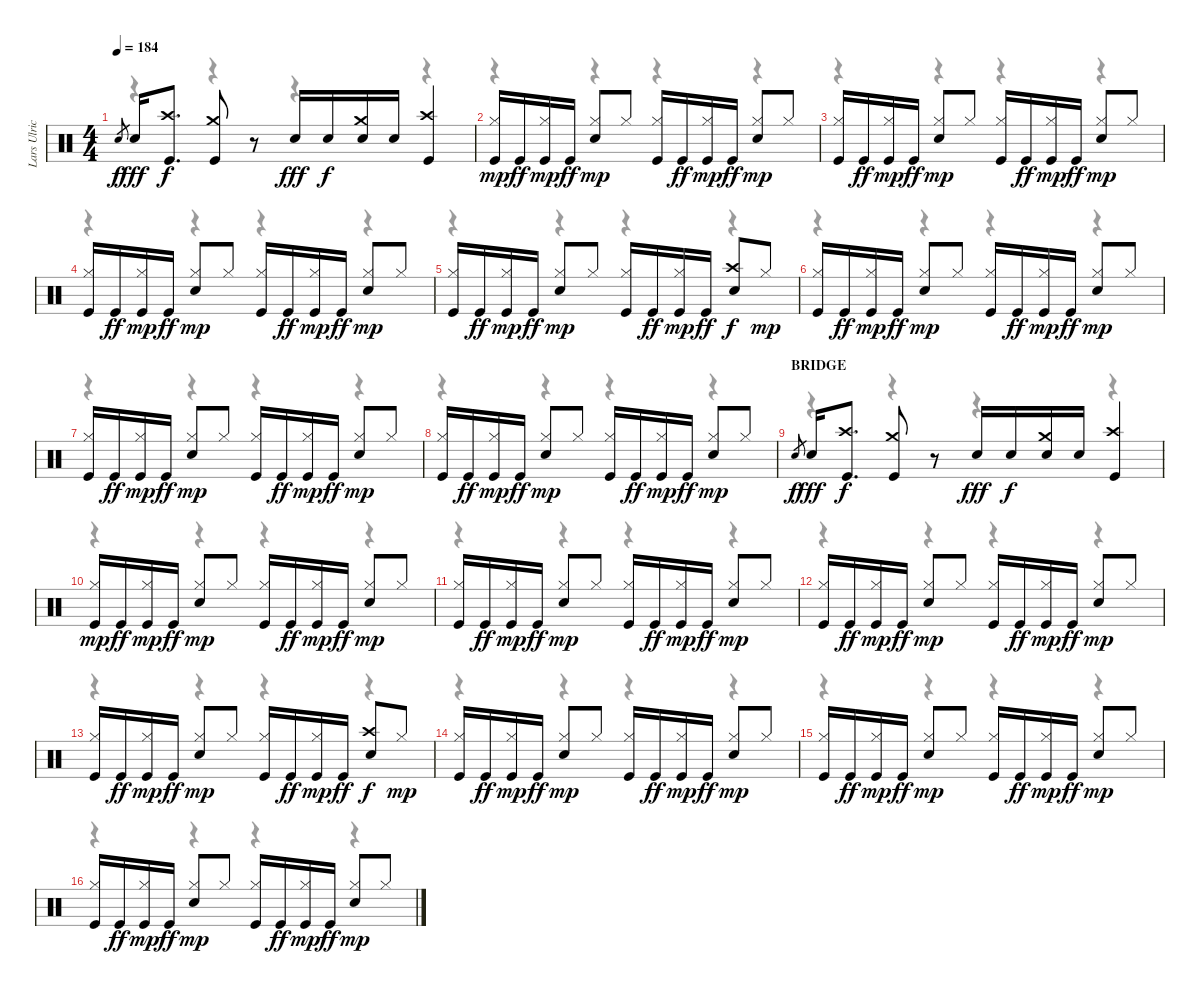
\track ("Lars Ulrich" "Lars Ulric") {instrument percussion}
\staff {score}
\articulation defaults
\voice
\ts (4 4)
\tempo 184
\clef neutral
\ks c "Snare (hit)".8{gr dy f} "Snare (hit) 2".16{dy fff}
("Crash high (hit)" "Kick (hit)").8{d dy f} ("Crash medium (hit)" "Kick (hit)").8 r.8 "Snare (hit) 2".16{dy fff} "Snare (hit) 2".16{dy f} ("Crash medium (hit)" "Snare (hit) 2").16 "Snare (hit) 2".16 ("Crash high (hit)" "Kick (hit)").4 |
("Hi-Hat (closed)" "Kick (hit)").16{dy mp} "Kick (hit)".16{dy ff} ("Hi-Hat (closed)" "Kick (hit)").16{dy mp} "Kick (hit)".16{dy ff} ("Hi-Hat (closed)" "Snare (hit) 2").8{dy mp} "Hi-Hat (closed)".8 ("Hi-Hat (closed)" "Kick (hit)").16 "Kick (hit)".16{dy ff} ("Hi-Hat (closed)" "Kick (hit)").16{dy mp} "Kick (hit)".16{dy ff} ("Hi-Hat (closed)" "Snare (hit) 2").8{dy mp} "Hi-Hat (closed)".8 |
("Hi-Hat (closed)" "Kick (hit)").16 "Kick (hit)".16{dy ff} ("Hi-Hat (closed)" "Kick (hit)").16{dy mp} "Kick (hit)".16{dy ff} ("Hi-Hat (closed)" "Snare (hit) 2").8{dy mp} "Hi-Hat (closed)".8 ("Hi-Hat (closed)" "Kick (hit)").16 "Kick (hit)".16{dy ff} ("Hi-Hat (closed)" "Kick (hit)").16{dy mp} "Kick (hit)".16{dy ff} ("Hi-Hat (closed)" "Snare (hit) 2").8{dy mp} "Hi-Hat (closed)".8 |
("Hi-Hat (closed)" "Kick (hit)").16 "Kick (hit)".16{dy ff} ("Hi-Hat (closed)" "Kick (hit)").16{dy mp} "Kick (hit)".16{dy ff} ("Hi-Hat (closed)" "Snare (hit) 2").8{dy mp} "Hi-Hat (closed)".8 ("Hi-Hat (closed)" "Kick (hit)").16 "Kick (hit)".16{dy ff} ("Hi-Hat (closed)" "Kick (hit)").16{dy mp} "Kick (hit)".16{dy ff} ("Hi-Hat (closed)" "Snare (hit) 2").8{dy mp} "Hi-Hat (closed)".8 |
("Hi-Hat (closed)" "Kick (hit)").16 "Kick (hit)".16{dy ff} ("Hi-Hat (closed)" "Kick (hit)").16{dy mp} "Kick (hit)".16{dy ff} ("Hi-Hat (closed)" "Snare (hit) 2").8{dy mp} "Hi-Hat (closed)".8 ("Hi-Hat (closed)" "Kick (hit)").16 "Kick (hit)".16{dy ff} ("Hi-Hat (closed)" "Kick (hit)").16{dy mp} "Kick (hit)".16{dy ff} ("Crash high (hit)" "Snare (hit) 2").8{dy f} "Hi-Hat (closed)".8{dy mp} |
("Hi-Hat (closed)" "Kick (hit)").16 "Kick (hit)".16{dy ff} ("Hi-Hat (closed)" "Kick (hit)").16{dy mp} "Kick (hit)".16{dy ff} ("Hi-Hat (closed)" "Snare (hit) 2").8{dy mp} "Hi-Hat (closed)".8 ("Hi-Hat (closed)" "Kick (hit)").16 "Kick (hit)".16{dy ff} ("Hi-Hat (closed)" "Kick (hit)").16{dy mp} "Kick (hit)".16{dy ff} ("Hi-Hat (closed)" "Snare (hit) 2").8{dy mp} "Hi-Hat (closed)".8 |
("Hi-Hat (closed)" "Kick (hit)").16 "Kick (hit)".16{dy ff} ("Hi-Hat (closed)" "Kick (hit)").16{dy mp} "Kick (hit)".16{dy ff} ("Hi-Hat (closed)" "Snare (hit) 2").8{dy mp} "Hi-Hat (closed)".8 ("Hi-Hat (closed)" "Kick (hit)").16 "Kick (hit)".16{dy ff} ("Hi-Hat (closed)" "Kick (hit)").16{dy mp} "Kick (hit)".16{dy ff} ("Hi-Hat (closed)" "Snare (hit) 2").8{dy mp} "Hi-Hat (closed)".8 |
("Hi-Hat (closed)" "Kick (hit)").16 "Kick (hit)".16{dy ff} ("Hi-Hat (closed)" "Kick (hit)").16{dy mp} "Kick (hit)".16{dy ff} ("Hi-Hat (closed)" "Snare (hit) 2").8{dy mp} "Hi-Hat (closed)".8 ("Hi-Hat (closed)" "Kick (hit)").16 "Kick (hit)".16{dy ff} ("Hi-Hat (closed)" "Kick (hit)").16{dy mp} "Kick (hit)".16{dy ff} ("Hi-Hat (closed)" "Snare (hit) 2").8{dy mp} "Hi-Hat (closed)".8 |
\section ("" "BRIDGE")
"Snare (hit)".8{gr dy f} "Snare (hit) 2".16{dy fff} ("Crash high (hit)" "Kick (hit)").8{d dy f} ("Crash medium (hit)" "Kick (hit)").8 r.8 "Snare (hit) 2".16{dy fff} "Snare (hit) 2".16{dy f} ("Crash medium (hit)" "Snare (hit) 2").16 "Snare (hit) 2".16 ("Crash high (hit)" "Kick (hit)").4 |
("Hi-Hat (closed)" "Kick (hit)").16{dy mp} "Kick (hit)".16{dy ff} ("Hi-Hat (closed)" "Kick (hit)").16{dy mp} "Kick (hit)".16{dy ff} ("Hi-Hat (closed)" "Snare (hit) 2").8{dy mp} "Hi-Hat (closed)".8 ("Hi-Hat (closed)" "Kick (hit)").16 "Kick (hit)".16{dy ff} ("Hi-Hat (closed)" "Kick (hit)").16{dy mp} "Kick (hit)".16{dy ff} ("Hi-Hat (closed)" "Snare (hit) 2").8{dy mp} "Hi-Hat (closed)".8 |
("Hi-Hat (closed)" "Kick (hit)").16 "Kick (hit)".16{dy ff} ("Hi-Hat (closed)" "Kick (hit)").16{dy mp} "Kick (hit)".16{dy ff} ("Hi-Hat (closed)" "Snare (hit) 2").8{dy mp} "Hi-Hat (closed)".8 ("Hi-Hat (closed)" "Kick (hit)").16 "Kick (hit)".16{dy ff} ("Hi-Hat (closed)" "Kick (hit)").16{dy mp} "Kick (hit)".16{dy ff} ("Hi-Hat (closed)" "Snare (hit) 2").8{dy mp} "Hi-Hat (closed)".8 |
("Hi-Hat (closed)" "Kick (hit)").16 "Kick (hit)".16{dy ff} ("Hi-Hat (closed)" "Kick (hit)").16{dy mp} "Kick (hit)".16{dy ff} ("Hi-Hat (closed)" "Snare (hit) 2").8{dy mp} "Hi-Hat (closed)".8 ("Hi-Hat (closed)" "Kick (hit)").16 "Kick (hit)".16{dy ff} ("Hi-Hat (closed)" "Kick (hit)").16{dy mp} "Kick (hit)".16{dy ff} ("Hi-Hat (closed)" "Snare (hit) 2").8{dy mp} "Hi-Hat (closed)".8 |
("Hi-Hat (closed)" "Kick (hit)").16 "Kick (hit)".16{dy ff} ("Hi-Hat (closed)" "Kick (hit)").16{dy mp} "Kick (hit)".16{dy ff} ("Hi-Hat (closed)" "Snare (hit) 2").8{dy mp} "Hi-Hat (closed)".8 ("Hi-Hat (closed)" "Kick (hit)").16 "Kick (hit)".16{dy ff} ("Hi-Hat (closed)" "Kick (hit)").16{dy mp} "Kick (hit)".16{dy ff} ("Crash high (hit)" "Snare (hit) 2").8{dy f} "Hi-Hat (closed)".8{dy mp} |
("Hi-Hat (closed)" "Kick (hit)").16 "Kick (hit)".16{dy ff} ("Hi-Hat (closed)" "Kick (hit)").16{dy mp} "Kick (hit)".16{dy ff} ("Hi-Hat (closed)" "Snare (hit) 2").8{dy mp} "Hi-Hat (closed)".8 ("Hi-Hat (closed)" "Kick (hit)").16 "Kick (hit)".16{dy ff} ("Hi-Hat (closed)" "Kick (hit)").16{dy mp} "Kick (hit)".16{dy ff} ("Hi-Hat (closed)" "Snare (hit) 2").8{dy mp} "Hi-Hat (closed)".8 |
("Hi-Hat (closed)" "Kick (hit)").16 "Kick (hit)".16{dy ff} ("Hi-Hat (closed)" "Kick (hit)").16{dy mp} "Kick (hit)".16{dy ff} ("Hi-Hat (closed)" "Snare (hit) 2").8{dy mp} "Hi-Hat (closed)".8 ("Hi-Hat (closed)" "Kick (hit)").16 "Kick (hit)".16{dy ff} ("Hi-Hat (closed)" "Kick (hit)").16{dy mp} "Kick (hit)".16{dy ff} ("Hi-Hat (closed)" "Snare (hit) 2").8{dy mp} "Hi-Hat (closed)".8 |
("Hi-Hat (closed)" "Kick (hit)").16 "Kick (hit)".16{dy ff} ("Hi-Hat (closed)" "Kick (hit)").16{dy mp} "Kick (hit)".16{dy ff} ("Hi-Hat (closed)" "Snare (hit) 2").8{dy mp} "Hi-Hat (closed)".8 ("Hi-Hat (closed)" "Kick (hit)").16 "Kick (hit)".16{dy ff} ("Hi-Hat (closed)" "Kick (hit)").16{dy mp} "Kick (hit)".16{dy ff} ("Hi-Hat (closed)" "Snare (hit) 2").8{dy mp} "Hi-Hat (closed)".8
\voice
\clef neutral
\ottava regular
\simile none
\ks c
r.4{dy f} r.4 r.4 r.4 |
r.4 r.4 r.4 r.4 |
r.4 r.4 r.4 r.4 |
r.4 r.4 r.4 r.4 |
r.4 r.4 r.4 r.4 |
r.4 r.4 r.4 r.4 |
r.4 r.4 r.4 r.4 |
r.4 r.4 r.4 r.4 |
r.4 r.4 r.4 r.4 |
r.4 r.4 r.4 r.4 |
r.4 r.4 r.4 r.4 |
r.4 r.4 r.4 r.4 |
r.4 r.4 r.4 r.4 |
r.4 r.4 r.4 r.4 |
r.4 r.4 r.4 r.4 |
r.4 r.4 r.4 r.4
